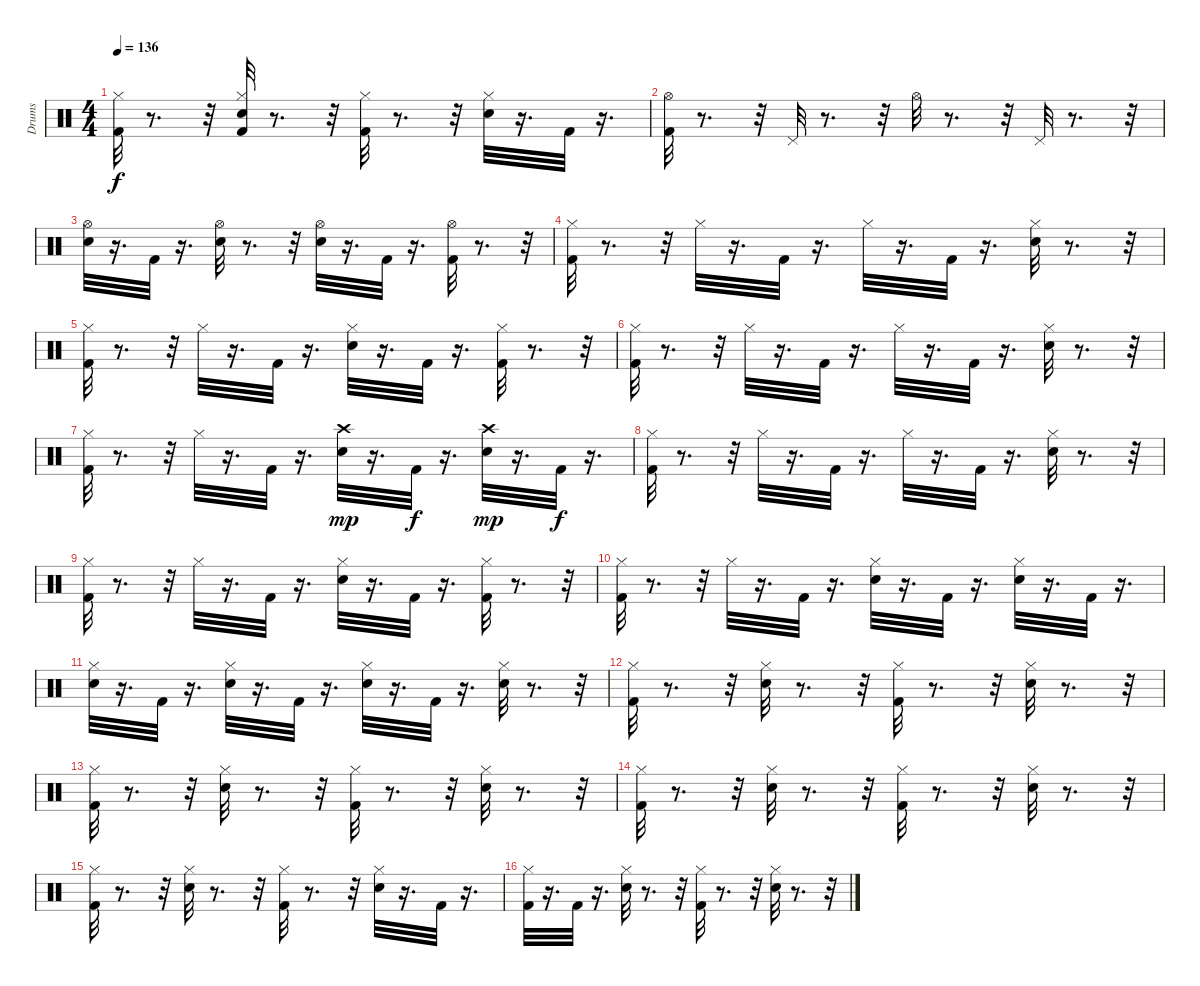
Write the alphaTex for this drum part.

\track ("Drums" "Drums") {instrument percussion}
\staff {score}
\articulation defaults
\ts (4 4)
\tempo 136
\clef neutral
\ks c
("Kick (hit) 2" "Hi-Hat (closed)").32{dy f} r.8{d} r.32 ("Kick (hit) 2" "Snare (hit) 2" "Hi-Hat (closed)").32 r.8{d} r.32 ("Kick (hit) 2" "Hi-Hat (closed)").32 r.8{d} r.32 ("Snare (hit) 2" "Hi-Hat (closed)").32 r.16{d} "Kick (hit) 2".32 r.16{d} |
("Kick (hit) 2" "Hi-Hat (open)").32 r.8{d} r.32 "Pedal Hi-Hat (hit)".32 r.8{d} r.32 "Hi-Hat (open)".32 r.8{d} r.32 "Pedal Hi-Hat (hit)".32 r.8{d} r.32 |
("Snare (hit) 2" "Hi-Hat (open)").32 r.16{d} "Kick (hit) 2".32 r.16{d} ("Snare (hit) 2" "Hi-Hat (open)").32 r.8{d} r.32 ("Snare (hit) 2" "Hi-Hat (open)").32 r.16{d} "Kick (hit) 2".32 r.16{d} ("Kick (hit) 2" "Hi-Hat (open)").32 r.8{d} r.32 |
("Kick (hit) 2" "Hi-Hat (closed)").32 r.8{d} r.32 "Hi-Hat (closed)".32 r.16{d} "Kick (hit) 2".32 r.16{d} "Hi-Hat (closed)".32 r.16{d} "Kick (hit) 2".32 r.16{d} ("Snare (hit) 2" "Hi-Hat (closed)").32 r.8{d} r.32 |
("Kick (hit) 2" "Hi-Hat (closed)").32 r.8{d} r.32 "Hi-Hat (closed)".32 r.16{d} "Kick (hit) 2".32 r.16{d} ("Snare (hit) 2" "Hi-Hat (closed)").32 r.16{d} "Kick (hit) 2".32 r.16{d} ("Kick (hit) 2" "Hi-Hat (closed)").32 r.8{d} r.32 |
("Kick (hit) 2" "Hi-Hat (closed)").32 r.8{d} r.32 "Hi-Hat (closed)".32 r.16{d} "Kick (hit) 2".32 r.16{d} "Hi-Hat (closed)".32 r.16{d} "Kick (hit) 2".32 r.16{d} ("Snare (hit) 2" "Hi-Hat (closed)").32 r.8{d} r.32 |
("Kick (hit) 2" "Hi-Hat (closed)").32 r.8{d} r.32 "Hi-Hat (closed)".32 r.16{d} "Kick (hit) 2".32 r.16{d} ("Snare (hit) 2" "Crash high (hit)").32{dy mp} r.16{d} "Kick (hit) 2".32{dy f} r.16{d} ("Snare (hit) 2" "Crash high (hit)").32{dy mp} r.16{d} "Kick (hit) 2".32{dy f} r.16{d} |
("Kick (hit) 2" "Hi-Hat (closed)").32 r.8{d} r.32 "Hi-Hat (closed)".32 r.16{d} "Kick (hit) 2".32 r.16{d} "Hi-Hat (closed)".32 r.16{d} "Kick (hit) 2".32 r.16{d} ("Snare (hit) 2" "Hi-Hat (closed)").32 r.8{d} r.32 |
("Kick (hit) 2" "Hi-Hat (closed)").32 r.8{d} r.32 "Hi-Hat (closed)".32 r.16{d} "Kick (hit) 2".32 r.16{d} ("Snare (hit) 2" "Hi-Hat (closed)").32 r.16{d} "Kick (hit) 2".32 r.16{d} ("Kick (hit) 2" "Hi-Hat (closed)").32 r.8{d} r.32 |
("Kick (hit) 2" "Hi-Hat (closed)").32 r.8{d} r.32 "Hi-Hat (closed)".32 r.16{d} "Kick (hit) 2".32 r.16{d} ("Snare (hit) 2" "Hi-Hat (closed)").32 r.16{d} "Kick (hit) 2".32 r.16{d} ("Snare (hit) 2" "Hi-Hat (closed)").32 r.16{d} "Kick (hit) 2".32 r.16{d} |
("Snare (hit) 2" "Hi-Hat (closed)").32 r.16{d} "Kick (hit) 2".32 r.16{d} ("Snare (hit) 2" "Hi-Hat (closed)").32 r.16{d} "Kick (hit) 2".32 r.16{d} ("Snare (hit) 2" "Hi-Hat (closed)").32 r.16{d} "Kick (hit) 2".32 r.16{d} ("Snare (hit) 2" "Hi-Hat (closed)").32 r.8{d} r.32 |
("Kick (hit) 2" "Hi-Hat (closed)").32 r.8{d} r.32 ("Snare (hit) 2" "Hi-Hat (closed)").32 r.8{d} r.32 ("Kick (hit) 2" "Hi-Hat (closed)").32 r.8{d} r.32 ("Snare (hit) 2" "Hi-Hat (closed)").32 r.8{d} r.32 |
("Kick (hit) 2" "Hi-Hat (closed)").32 r.8{d} r.32 ("Snare (hit) 2" "Hi-Hat (closed)").32 r.8{d} r.32 ("Kick (hit) 2" "Hi-Hat (closed)").32 r.8{d} r.32 ("Snare (hit) 2" "Hi-Hat (closed)").32 r.8{d} r.32 |
("Kick (hit) 2" "Hi-Hat (closed)").32 r.8{d} r.32 ("Snare (hit) 2" "Hi-Hat (closed)").32 r.8{d} r.32 ("Kick (hit) 2" "Hi-Hat (closed)").32 r.8{d} r.32 ("Snare (hit) 2" "Hi-Hat (closed)").32 r.8{d} r.32 |
("Kick (hit) 2" "Hi-Hat (closed)").32 r.8{d} r.32 ("Snare (hit) 2" "Hi-Hat (closed)").32 r.8{d} r.32 ("Kick (hit) 2" "Hi-Hat (closed)").32 r.8{d} r.32 ("Snare (hit) 2" "Hi-Hat (closed)").32 r.16{d} "Kick (hit) 2".32 r.16{d} |
("Kick (hit) 2" "Hi-Hat (closed)").32 r.16{d} "Kick (hit) 2".32 r.16{d} ("Snare (hit) 2" "Hi-Hat (closed)").32 r.8{d} r.32 ("Kick (hit) 2" "Hi-Hat (closed)").32 r.8{d} r.32 ("Snare (hit) 2" "Hi-Hat (closed)").32 r.8{d} r.32
